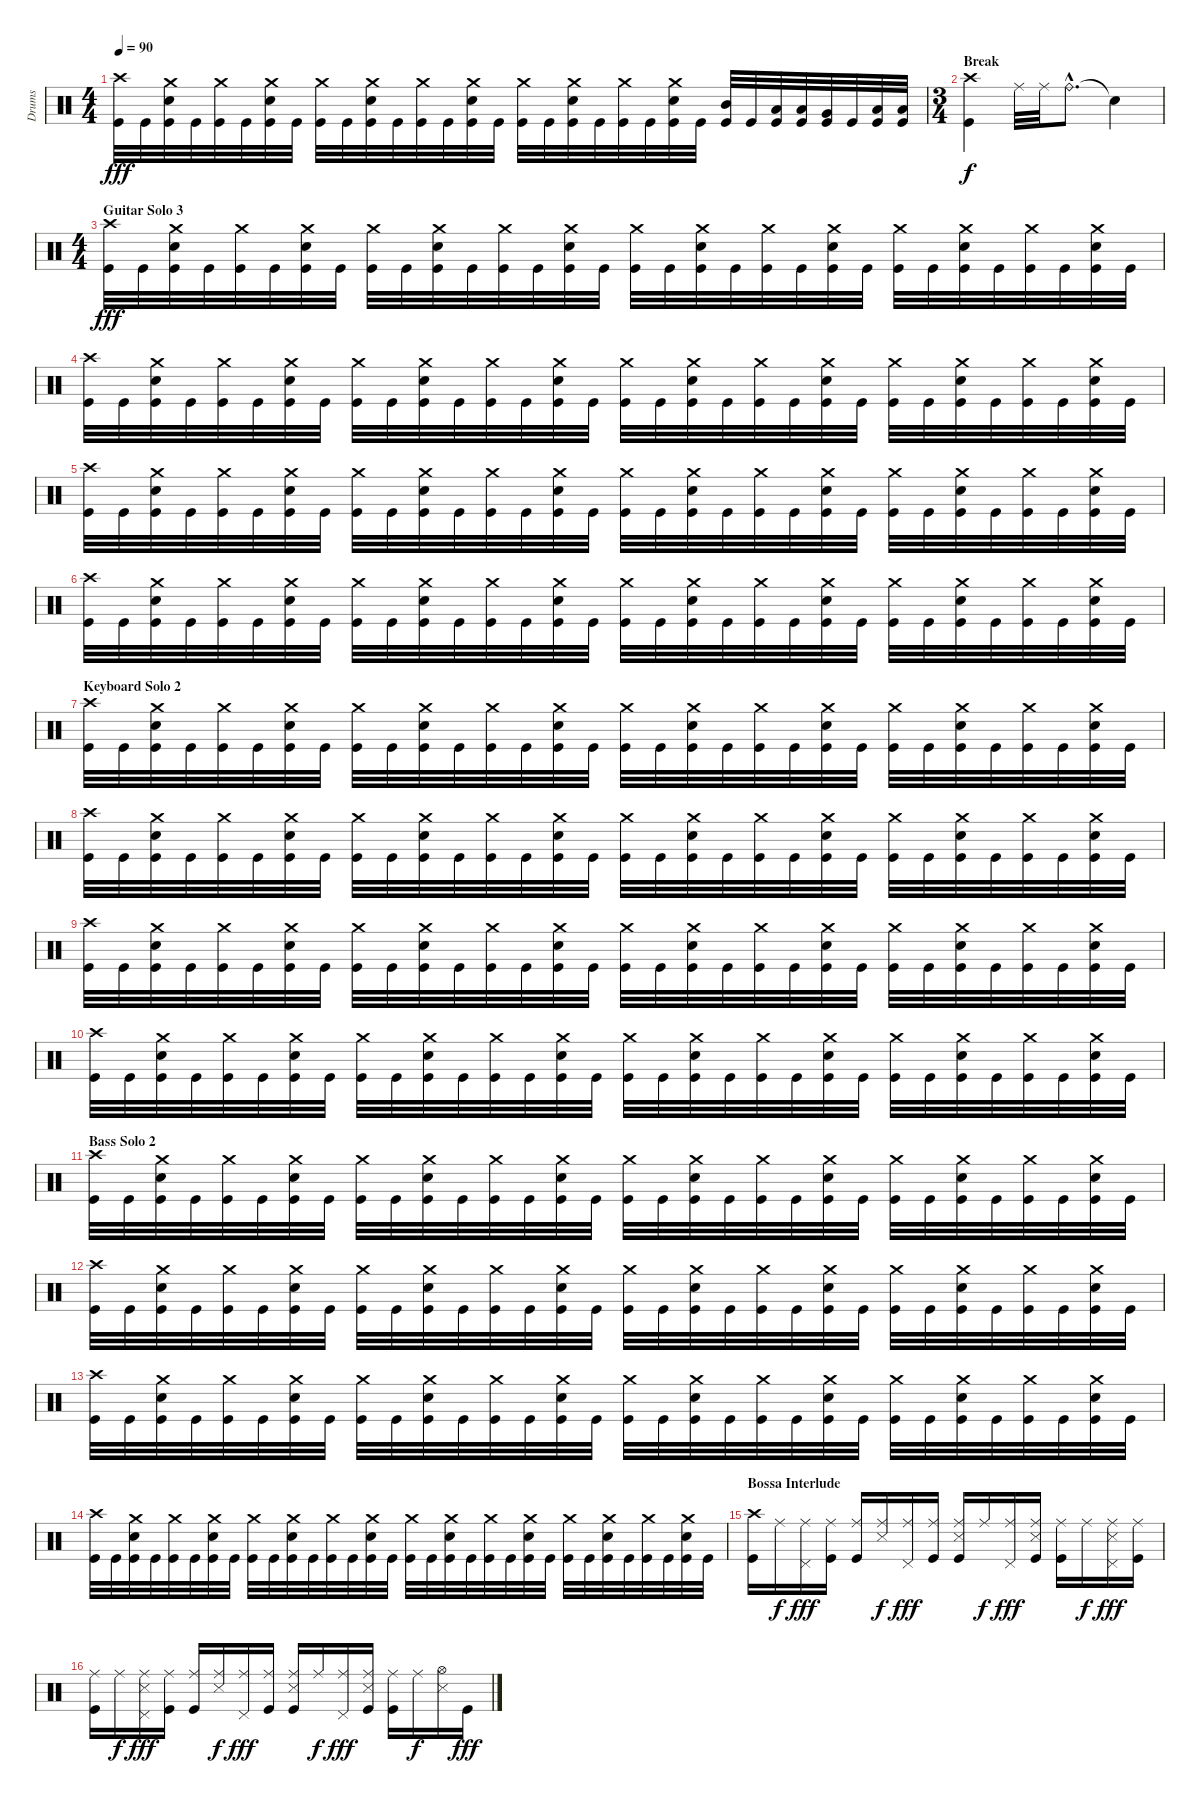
\track ("Drums" "Drums") {instrument percussion}
\staff {score}
\articulation defaults
\ts (4 4)
\tempo 90
\clef neutral
\ks c
("Crash high (hit)" "Kick (hit)").32{dy fff} "Kick (hit)".32 ("Crash medium (hit)" "Electric Snare (hit)" "Kick (hit)").32 "Kick (hit)".32 ("Crash medium (hit)" "Kick (hit)").32 "Kick (hit)".32 ("Crash medium (hit)" "Electric Snare (hit)" "Kick (hit)").32 "Kick (hit)".32 ("Crash medium (hit)" "Kick (hit)").32 "Kick (hit)".32 ("Crash medium (hit)" "Electric Snare (hit)" "Kick (hit)").32 "Kick (hit)".32 ("Crash medium (hit)" "Kick (hit)").32 "Kick (hit)".32 ("Crash medium (hit)" "Electric Snare (hit)" "Kick (hit)").32 "Kick (hit)".32 ("Crash medium (hit)" "Kick (hit)").32 "Kick (hit)".32 ("Crash medium (hit)" "Electric Snare (hit)" "Kick (hit)").32 "Kick (hit)".32 ("Crash medium (hit)" "Kick (hit)").32 "Kick (hit)".32 ("Crash medium (hit)" "Electric Snare (hit)" "Kick (hit)").32 "Kick (hit)".32 ("Mid Tom (hit)" "Kick (hit)").32 "Kick (hit)".32 ("Low Tom (hit)" "Kick (hit)").32 ("Low Tom (hit)" "Kick (hit)").32 ("Very Low Tom (hit)" "Kick (hit)").32 "Kick (hit)".32 ("Low Floor Tom (hit)" "Kick (hit)").32 ("Low Floor Tom (hit)" "Kick (hit)").32 |
\ts (3 4)
\section ("" "Break")
("Crash high (hit)" "Kick (hit)").4{dy f} "Ride (middle)".32 "Ride (middle)".32 "Ride (bell)"{hac}.8{d} "Snare (hit)"{t}.4 |
\ts (4 4)
\section ("" "Guitar Solo 3")
("Crash high (hit)" "Kick (hit)").32{dy fff} "Kick (hit)".32 ("Crash medium (hit)" "Electric Snare (hit)" "Kick (hit)").32 "Kick (hit)".32 ("Crash medium (hit)" "Kick (hit)").32 "Kick (hit)".32 ("Crash medium (hit)" "Electric Snare (hit)" "Kick (hit)").32 "Kick (hit)".32 ("Crash medium (hit)" "Kick (hit)").32 "Kick (hit)".32 ("Crash medium (hit)" "Electric Snare (hit)" "Kick (hit)").32 "Kick (hit)".32 ("Crash medium (hit)" "Kick (hit)").32 "Kick (hit)".32 ("Crash medium (hit)" "Electric Snare (hit)" "Kick (hit)").32 "Kick (hit)".32 ("Crash medium (hit)" "Kick (hit)").32 "Kick (hit)".32 ("Crash medium (hit)" "Electric Snare (hit)" "Kick (hit)").32 "Kick (hit)".32 ("Crash medium (hit)" "Kick (hit)").32 "Kick (hit)".32 ("Crash medium (hit)" "Electric Snare (hit)" "Kick (hit)").32 "Kick (hit)".32 ("Crash medium (hit)" "Kick (hit)").32 "Kick (hit)".32 ("Crash medium (hit)" "Electric Snare (hit)" "Kick (hit)").32 "Kick (hit)".32 ("Crash medium (hit)" "Kick (hit)").32 "Kick (hit)".32 ("Crash medium (hit)" "Electric Snare (hit)" "Kick (hit)").32 "Kick (hit)".32 |
("Crash high (hit)" "Kick (hit)").32 "Kick (hit)".32 ("Crash medium (hit)" "Electric Snare (hit)" "Kick (hit)").32 "Kick (hit)".32 ("Crash medium (hit)" "Kick (hit)").32 "Kick (hit)".32 ("Crash medium (hit)" "Electric Snare (hit)" "Kick (hit)").32 "Kick (hit)".32 ("Crash medium (hit)" "Kick (hit)").32 "Kick (hit)".32 ("Crash medium (hit)" "Electric Snare (hit)" "Kick (hit)").32 "Kick (hit)".32 ("Crash medium (hit)" "Kick (hit)").32 "Kick (hit)".32 ("Crash medium (hit)" "Electric Snare (hit)" "Kick (hit)").32 "Kick (hit)".32 ("Crash medium (hit)" "Kick (hit)").32 "Kick (hit)".32 ("Crash medium (hit)" "Electric Snare (hit)" "Kick (hit)").32 "Kick (hit)".32 ("Crash medium (hit)" "Kick (hit)").32 "Kick (hit)".32 ("Crash medium (hit)" "Electric Snare (hit)" "Kick (hit)").32 "Kick (hit)".32 ("Crash medium (hit)" "Kick (hit)").32 "Kick (hit)".32 ("Crash medium (hit)" "Electric Snare (hit)" "Kick (hit)").32 "Kick (hit)".32 ("Crash medium (hit)" "Kick (hit)").32 "Kick (hit)".32 ("Crash medium (hit)" "Electric Snare (hit)" "Kick (hit)").32 "Kick (hit)".32 |
("Crash high (hit)" "Kick (hit)").32 "Kick (hit)".32 ("Crash medium (hit)" "Electric Snare (hit)" "Kick (hit)").32 "Kick (hit)".32 ("Crash medium (hit)" "Kick (hit)").32 "Kick (hit)".32 ("Crash medium (hit)" "Electric Snare (hit)" "Kick (hit)").32 "Kick (hit)".32 ("Crash medium (hit)" "Kick (hit)").32 "Kick (hit)".32 ("Crash medium (hit)" "Electric Snare (hit)" "Kick (hit)").32 "Kick (hit)".32 ("Crash medium (hit)" "Kick (hit)").32 "Kick (hit)".32 ("Crash medium (hit)" "Electric Snare (hit)" "Kick (hit)").32 "Kick (hit)".32 ("Crash medium (hit)" "Kick (hit)").32 "Kick (hit)".32 ("Crash medium (hit)" "Electric Snare (hit)" "Kick (hit)").32 "Kick (hit)".32 ("Crash medium (hit)" "Kick (hit)").32 "Kick (hit)".32 ("Crash medium (hit)" "Electric Snare (hit)" "Kick (hit)").32 "Kick (hit)".32 ("Crash medium (hit)" "Kick (hit)").32 "Kick (hit)".32 ("Crash medium (hit)" "Electric Snare (hit)" "Kick (hit)").32 "Kick (hit)".32 ("Crash medium (hit)" "Kick (hit)").32 "Kick (hit)".32 ("Crash medium (hit)" "Electric Snare (hit)" "Kick (hit)").32 "Kick (hit)".32 |
("Crash high (hit)" "Kick (hit)").32 "Kick (hit)".32 ("Crash medium (hit)" "Electric Snare (hit)" "Kick (hit)").32 "Kick (hit)".32 ("Crash medium (hit)" "Kick (hit)").32 "Kick (hit)".32 ("Crash medium (hit)" "Electric Snare (hit)" "Kick (hit)").32 "Kick (hit)".32 ("Crash medium (hit)" "Kick (hit)").32 "Kick (hit)".32 ("Crash medium (hit)" "Electric Snare (hit)" "Kick (hit)").32 "Kick (hit)".32 ("Crash medium (hit)" "Kick (hit)").32 "Kick (hit)".32 ("Crash medium (hit)" "Electric Snare (hit)" "Kick (hit)").32 "Kick (hit)".32 ("Crash medium (hit)" "Kick (hit)").32 "Kick (hit)".32 ("Crash medium (hit)" "Electric Snare (hit)" "Kick (hit)").32 "Kick (hit)".32 ("Crash medium (hit)" "Kick (hit)").32 "Kick (hit)".32 ("Crash medium (hit)" "Electric Snare (hit)" "Kick (hit)").32 "Kick (hit)".32 ("Crash medium (hit)" "Kick (hit)").32 "Kick (hit)".32 ("Crash medium (hit)" "Electric Snare (hit)" "Kick (hit)").32 "Kick (hit)".32 ("Crash medium (hit)" "Kick (hit)").32 "Kick (hit)".32 ("Crash medium (hit)" "Electric Snare (hit)" "Kick (hit)").32 "Kick (hit)".32 |
\section ("" "Keyboard Solo 2")
("Crash high (hit)" "Kick (hit)").32 "Kick (hit)".32 ("Crash medium (hit)" "Electric Snare (hit)" "Kick (hit)").32 "Kick (hit)".32 ("Crash medium (hit)" "Kick (hit)").32 "Kick (hit)".32 ("Crash medium (hit)" "Electric Snare (hit)" "Kick (hit)").32 "Kick (hit)".32 ("Crash medium (hit)" "Kick (hit)").32 "Kick (hit)".32 ("Crash medium (hit)" "Electric Snare (hit)" "Kick (hit)").32 "Kick (hit)".32 ("Crash medium (hit)" "Kick (hit)").32 "Kick (hit)".32 ("Crash medium (hit)" "Electric Snare (hit)" "Kick (hit)").32 "Kick (hit)".32 ("Crash medium (hit)" "Kick (hit)").32 "Kick (hit)".32 ("Crash medium (hit)" "Electric Snare (hit)" "Kick (hit)").32 "Kick (hit)".32 ("Crash medium (hit)" "Kick (hit)").32 "Kick (hit)".32 ("Crash medium (hit)" "Electric Snare (hit)" "Kick (hit)").32 "Kick (hit)".32 ("Crash medium (hit)" "Kick (hit)").32 "Kick (hit)".32 ("Crash medium (hit)" "Electric Snare (hit)" "Kick (hit)").32 "Kick (hit)".32 ("Crash medium (hit)" "Kick (hit)").32 "Kick (hit)".32 ("Crash medium (hit)" "Electric Snare (hit)" "Kick (hit)").32 "Kick (hit)".32 |
("Crash high (hit)" "Kick (hit)").32 "Kick (hit)".32 ("Crash medium (hit)" "Electric Snare (hit)" "Kick (hit)").32 "Kick (hit)".32 ("Crash medium (hit)" "Kick (hit)").32 "Kick (hit)".32 ("Crash medium (hit)" "Electric Snare (hit)" "Kick (hit)").32 "Kick (hit)".32 ("Crash medium (hit)" "Kick (hit)").32 "Kick (hit)".32 ("Crash medium (hit)" "Electric Snare (hit)" "Kick (hit)").32 "Kick (hit)".32 ("Crash medium (hit)" "Kick (hit)").32 "Kick (hit)".32 ("Crash medium (hit)" "Electric Snare (hit)" "Kick (hit)").32 "Kick (hit)".32 ("Crash medium (hit)" "Kick (hit)").32 "Kick (hit)".32 ("Crash medium (hit)" "Electric Snare (hit)" "Kick (hit)").32 "Kick (hit)".32 ("Crash medium (hit)" "Kick (hit)").32 "Kick (hit)".32 ("Crash medium (hit)" "Electric Snare (hit)" "Kick (hit)").32 "Kick (hit)".32 ("Crash medium (hit)" "Kick (hit)").32 "Kick (hit)".32 ("Crash medium (hit)" "Electric Snare (hit)" "Kick (hit)").32 "Kick (hit)".32 ("Crash medium (hit)" "Kick (hit)").32 "Kick (hit)".32 ("Crash medium (hit)" "Electric Snare (hit)" "Kick (hit)").32 "Kick (hit)".32 |
("Crash high (hit)" "Kick (hit)").32 "Kick (hit)".32 ("Crash medium (hit)" "Electric Snare (hit)" "Kick (hit)").32 "Kick (hit)".32 ("Crash medium (hit)" "Kick (hit)").32 "Kick (hit)".32 ("Crash medium (hit)" "Electric Snare (hit)" "Kick (hit)").32 "Kick (hit)".32 ("Crash medium (hit)" "Kick (hit)").32 "Kick (hit)".32 ("Crash medium (hit)" "Electric Snare (hit)" "Kick (hit)").32 "Kick (hit)".32 ("Crash medium (hit)" "Kick (hit)").32 "Kick (hit)".32 ("Crash medium (hit)" "Electric Snare (hit)" "Kick (hit)").32 "Kick (hit)".32 ("Crash medium (hit)" "Kick (hit)").32 "Kick (hit)".32 ("Crash medium (hit)" "Electric Snare (hit)" "Kick (hit)").32 "Kick (hit)".32 ("Crash medium (hit)" "Kick (hit)").32 "Kick (hit)".32 ("Crash medium (hit)" "Electric Snare (hit)" "Kick (hit)").32 "Kick (hit)".32 ("Crash medium (hit)" "Kick (hit)").32 "Kick (hit)".32 ("Crash medium (hit)" "Electric Snare (hit)" "Kick (hit)").32 "Kick (hit)".32 ("Crash medium (hit)" "Kick (hit)").32 "Kick (hit)".32 ("Crash medium (hit)" "Electric Snare (hit)" "Kick (hit)").32 "Kick (hit)".32 |
("Crash high (hit)" "Kick (hit)").32 "Kick (hit)".32 ("Crash medium (hit)" "Electric Snare (hit)" "Kick (hit)").32 "Kick (hit)".32 ("Crash medium (hit)" "Kick (hit)").32 "Kick (hit)".32 ("Crash medium (hit)" "Electric Snare (hit)" "Kick (hit)").32 "Kick (hit)".32 ("Crash medium (hit)" "Kick (hit)").32 "Kick (hit)".32 ("Crash medium (hit)" "Electric Snare (hit)" "Kick (hit)").32 "Kick (hit)".32 ("Crash medium (hit)" "Kick (hit)").32 "Kick (hit)".32 ("Crash medium (hit)" "Electric Snare (hit)" "Kick (hit)").32 "Kick (hit)".32 ("Crash medium (hit)" "Kick (hit)").32 "Kick (hit)".32 ("Crash medium (hit)" "Electric Snare (hit)" "Kick (hit)").32 "Kick (hit)".32 ("Crash medium (hit)" "Kick (hit)").32 "Kick (hit)".32 ("Crash medium (hit)" "Electric Snare (hit)" "Kick (hit)").32 "Kick (hit)".32 ("Crash medium (hit)" "Kick (hit)").32 "Kick (hit)".32 ("Crash medium (hit)" "Electric Snare (hit)" "Kick (hit)").32 "Kick (hit)".32 ("Crash medium (hit)" "Kick (hit)").32 "Kick (hit)".32 ("Crash medium (hit)" "Electric Snare (hit)" "Kick (hit)").32 "Kick (hit)".32 |
\section ("" "Bass Solo 2")
("Crash high (hit)" "Kick (hit)").32 "Kick (hit)".32 ("Crash medium (hit)" "Electric Snare (hit)" "Kick (hit)").32 "Kick (hit)".32 ("Crash medium (hit)" "Kick (hit)").32 "Kick (hit)".32 ("Crash medium (hit)" "Electric Snare (hit)" "Kick (hit)").32 "Kick (hit)".32 ("Crash medium (hit)" "Kick (hit)").32 "Kick (hit)".32 ("Crash medium (hit)" "Electric Snare (hit)" "Kick (hit)").32 "Kick (hit)".32 ("Crash medium (hit)" "Kick (hit)").32 "Kick (hit)".32 ("Crash medium (hit)" "Electric Snare (hit)" "Kick (hit)").32 "Kick (hit)".32 ("Crash medium (hit)" "Kick (hit)").32 "Kick (hit)".32 ("Crash medium (hit)" "Electric Snare (hit)" "Kick (hit)").32 "Kick (hit)".32 ("Crash medium (hit)" "Kick (hit)").32 "Kick (hit)".32 ("Crash medium (hit)" "Electric Snare (hit)" "Kick (hit)").32 "Kick (hit)".32 ("Crash medium (hit)" "Kick (hit)").32 "Kick (hit)".32 ("Crash medium (hit)" "Electric Snare (hit)" "Kick (hit)").32 "Kick (hit)".32 ("Crash medium (hit)" "Kick (hit)").32 "Kick (hit)".32 ("Crash medium (hit)" "Electric Snare (hit)" "Kick (hit)").32 "Kick (hit)".32 |
("Crash high (hit)" "Kick (hit)").32 "Kick (hit)".32 ("Crash medium (hit)" "Electric Snare (hit)" "Kick (hit)").32 "Kick (hit)".32 ("Crash medium (hit)" "Kick (hit)").32 "Kick (hit)".32 ("Crash medium (hit)" "Electric Snare (hit)" "Kick (hit)").32 "Kick (hit)".32 ("Crash medium (hit)" "Kick (hit)").32 "Kick (hit)".32 ("Crash medium (hit)" "Electric Snare (hit)" "Kick (hit)").32 "Kick (hit)".32 ("Crash medium (hit)" "Kick (hit)").32 "Kick (hit)".32 ("Crash medium (hit)" "Electric Snare (hit)" "Kick (hit)").32 "Kick (hit)".32 ("Crash medium (hit)" "Kick (hit)").32 "Kick (hit)".32 ("Crash medium (hit)" "Electric Snare (hit)" "Kick (hit)").32 "Kick (hit)".32 ("Crash medium (hit)" "Kick (hit)").32 "Kick (hit)".32 ("Crash medium (hit)" "Electric Snare (hit)" "Kick (hit)").32 "Kick (hit)".32 ("Crash medium (hit)" "Kick (hit)").32 "Kick (hit)".32 ("Crash medium (hit)" "Electric Snare (hit)" "Kick (hit)").32 "Kick (hit)".32 ("Crash medium (hit)" "Kick (hit)").32 "Kick (hit)".32 ("Crash medium (hit)" "Electric Snare (hit)" "Kick (hit)").32 "Kick (hit)".32 |
("Crash high (hit)" "Kick (hit)").32 "Kick (hit)".32 ("Crash medium (hit)" "Electric Snare (hit)" "Kick (hit)").32 "Kick (hit)".32 ("Crash medium (hit)" "Kick (hit)").32 "Kick (hit)".32 ("Crash medium (hit)" "Electric Snare (hit)" "Kick (hit)").32 "Kick (hit)".32 ("Crash medium (hit)" "Kick (hit)").32 "Kick (hit)".32 ("Crash medium (hit)" "Electric Snare (hit)" "Kick (hit)").32 "Kick (hit)".32 ("Crash medium (hit)" "Kick (hit)").32 "Kick (hit)".32 ("Crash medium (hit)" "Electric Snare (hit)" "Kick (hit)").32 "Kick (hit)".32 ("Crash medium (hit)" "Kick (hit)").32 "Kick (hit)".32 ("Crash medium (hit)" "Electric Snare (hit)" "Kick (hit)").32 "Kick (hit)".32 ("Crash medium (hit)" "Kick (hit)").32 "Kick (hit)".32 ("Crash medium (hit)" "Electric Snare (hit)" "Kick (hit)").32 "Kick (hit)".32 ("Crash medium (hit)" "Kick (hit)").32 "Kick (hit)".32 ("Crash medium (hit)" "Electric Snare (hit)" "Kick (hit)").32 "Kick (hit)".32 ("Crash medium (hit)" "Kick (hit)").32 "Kick (hit)".32 ("Crash medium (hit)" "Electric Snare (hit)" "Kick (hit)").32 "Kick (hit)".32 |
("Crash high (hit)" "Kick (hit)").32 "Kick (hit)".32 ("Crash medium (hit)" "Electric Snare (hit)" "Kick (hit)").32 "Kick (hit)".32 ("Crash medium (hit)" "Kick (hit)").32 "Kick (hit)".32 ("Crash medium (hit)" "Electric Snare (hit)" "Kick (hit)").32 "Kick (hit)".32 ("Crash medium (hit)" "Kick (hit)").32 "Kick (hit)".32 ("Crash medium (hit)" "Electric Snare (hit)" "Kick (hit)").32 "Kick (hit)".32 ("Crash medium (hit)" "Kick (hit)").32 "Kick (hit)".32 ("Crash medium (hit)" "Electric Snare (hit)" "Kick (hit)").32 "Kick (hit)".32 ("Crash medium (hit)" "Kick (hit)").32 "Kick (hit)".32 ("Crash medium (hit)" "Electric Snare (hit)" "Kick (hit)").32 "Kick (hit)".32 ("Crash medium (hit)" "Kick (hit)").32 "Kick (hit)".32 ("Crash medium (hit)" "Electric Snare (hit)" "Kick (hit)").32 "Kick (hit)".32 ("Crash medium (hit)" "Kick (hit)").32 "Kick (hit)".32 ("Crash medium (hit)" "Electric Snare (hit)" "Kick (hit)").32 "Kick (hit)".32 ("Crash medium (hit)" "Kick (hit)").32 "Kick (hit)".32 ("Crash medium (hit)" "Electric Snare (hit)" "Kick (hit)").32 "Kick (hit)".32 |
\section ("" "Bossa Interlude")
("Crash high (hit)" "Kick (hit)").16 "Ride (middle)".16{dy f} ("Ride (middle)" "Pedal Hi-Hat (hit)").16{dy fff} ("Ride (middle)" "Kick (hit)").16 ("Ride (middle)" "Kick (hit)").16 ("Ride (middle)" "Snare (side stick) 3").16{dy f} ("Ride (middle)" "Pedal Hi-Hat (hit)").16{dy fff} ("Ride (middle)" "Kick (hit)").16 ("Ride (middle)" "Snare (side stick) 3" "Kick (hit)").16 "Ride (middle)".16{dy f} ("Ride (middle)" "Pedal Hi-Hat (hit)").16{dy fff} ("Ride (middle)" "Snare (side stick) 3" "Kick (hit)").16 ("Ride (middle)" "Kick (hit)").16 "Ride (middle)".16{dy f} ("Ride (middle)" "Snare (side stick) 3" "Pedal Hi-Hat (hit)").16{dy fff} ("Ride (middle)" "Kick (hit)").16 |
("Ride (middle)" "Kick (hit)").16 "Ride (middle)".16{dy f} ("Ride (middle)" "Snare (side stick) 3" "Pedal Hi-Hat (hit)").16{dy fff} ("Ride (middle)" "Kick (hit)").16 ("Ride (middle)" "Kick (hit)").16 ("Ride (middle)" "Snare (side stick) 3").16{dy f} ("Ride (middle)" "Pedal Hi-Hat (hit)").16{dy fff} ("Ride (middle)" "Kick (hit)").16 ("Ride (middle)" "Snare (side stick) 3" "Kick (hit)").16 "Ride (middle)".16{dy f} ("Ride (middle)" "Pedal Hi-Hat (hit)").16{dy fff} ("Ride (middle)" "Snare (side stick) 3" "Kick (hit)").16 ("Ride (middle)" "Kick (hit)").16 "Ride (middle)".16{dy f} ("Hi-Hat (open)" "Snare (side stick) 3").16 "Kick (hit)".16{dy fff}
